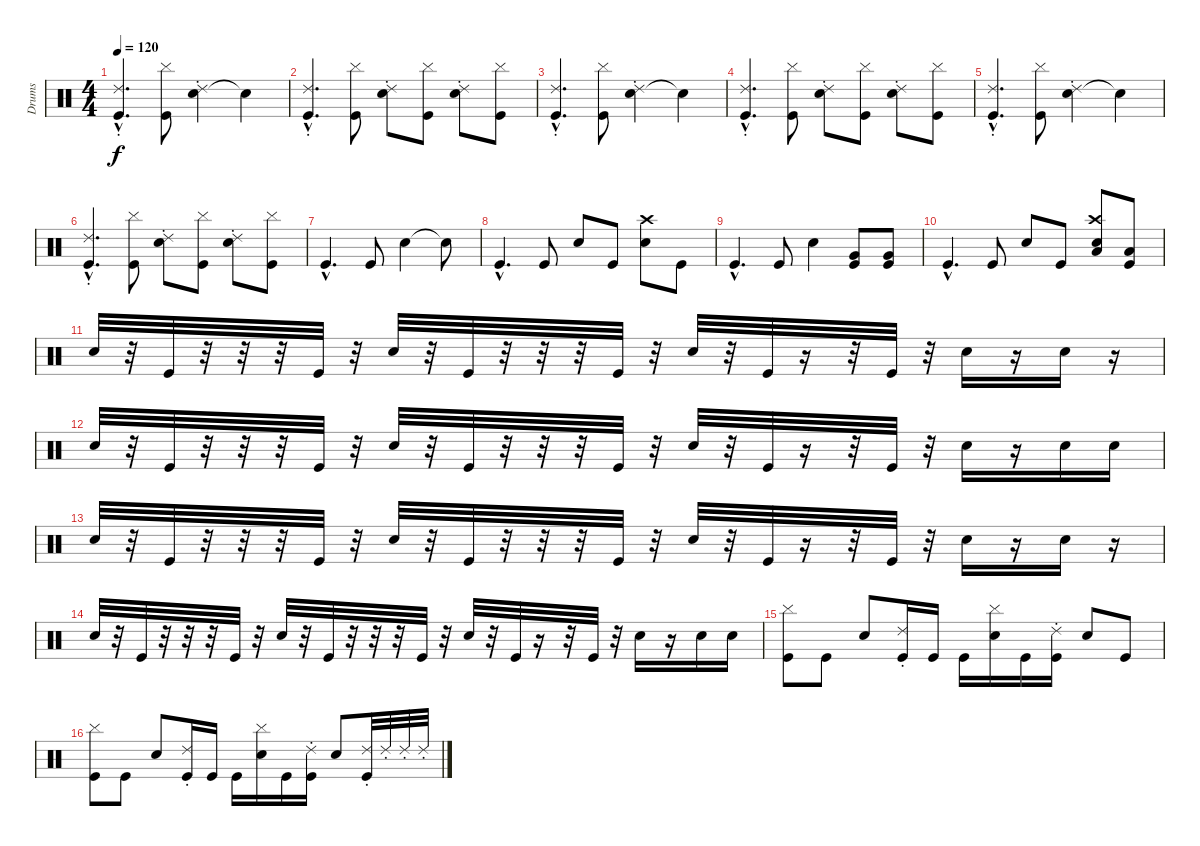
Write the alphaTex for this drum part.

\track ("Drums" "Drums") {instrument percussion}
\staff {score}
\articulation defaults
\ts (4 4)
\tempo 120
\clef neutral
\ks c
("Kick (hit)"{hac} "Ride (choke) 2"{hac}).4{d dy f} ("Kick (hit)" "Cymbal (hit)").8 ("Electric Snare (hit)" "Ride (choke) 2").4 "Snare (hit)"{t}.4 |
("Kick (hit)"{hac} "Ride (choke) 2"{hac}).4{d} ("Kick (hit)" "Cymbal (hit)").8 ("Electric Snare (hit)" "Ride (choke) 2").8 ("Kick (hit)" "Cymbal (hit)").8 ("Electric Snare (hit)" "Ride (choke) 2").8 ("Kick (hit)" "Cymbal (hit)").8 |
("Kick (hit)"{hac} "Ride (choke) 2"{hac}).4{d} ("Kick (hit)" "Cymbal (hit)").8 ("Electric Snare (hit)" "Ride (choke) 2").4 "Snare (hit)"{t}.4 |
("Kick (hit)"{hac} "Ride (choke) 2"{hac}).4{d} ("Kick (hit)" "Cymbal (hit)").8 ("Electric Snare (hit)" "Ride (choke) 2").8 ("Kick (hit)" "Cymbal (hit)").8 ("Electric Snare (hit)" "Ride (choke) 2").8 ("Kick (hit)" "Cymbal (hit)").8 |
("Kick (hit)"{hac} "Ride (choke) 2"{hac}).4{d} ("Kick (hit)" "Cymbal (hit)").8 ("Electric Snare (hit)" "Ride (choke) 2").4 "Snare (hit)"{t}.4 |
("Kick (hit)"{hac} "Ride (choke) 2"{hac}).4{d} ("Kick (hit)" "Cymbal (hit)").8 ("Electric Snare (hit)" "Ride (choke) 2").8 ("Kick (hit)" "Cymbal (hit)").8 ("Electric Snare (hit)" "Ride (choke) 2").8 ("Kick (hit)" "Cymbal (hit)").8 |
"Kick (hit)"{hac}.4{d} "Kick (hit)".8 "Electric Snare (hit)".4 "Snare (hit)"{t}.8 |
"Kick (hit)"{hac}.4{d} "Kick (hit)".8 "Electric Snare (hit)".8 "Kick (hit)".8 ("Electric Snare (hit)" "Crash high (hit)").8 "Kick (hit)".8 |
"Kick (hit)"{hac}.4{d} "Kick (hit)".8 "Electric Snare (hit)".4 ("Kick (hit)" "Very Low Tom (hit)").8 ("Kick (hit)" "Very Low Tom (hit)").8 |
"Kick (hit)"{hac}.4{d} "Kick (hit)".8 "Electric Snare (hit)".8 "Kick (hit)".8 ("Electric Snare (hit)" "Crash high (hit)" "Low Floor Tom (hit)").8 ("Kick (hit)" "Low Floor Tom (hit)").8 |
"Electric Snare (hit)".32 r.32 "Kick (hit)".32 r.32 r.32 r.32 "Kick (hit)".32 r.32 "Electric Snare (hit)".32 r.32 "Kick (hit)".32 r.32 r.32 r.32 "Kick (hit)".32 r.32 "Electric Snare (hit)".32 r.32 "Kick (hit)".32 r.16 r.32 "Kick (hit)".32 r.32 "Electric Snare (hit)".16 r.16 "Electric Snare (hit)".16 r.16 |
"Electric Snare (hit)".32 r.32 "Kick (hit)".32 r.32 r.32 r.32 "Kick (hit)".32 r.32 "Electric Snare (hit)".32 r.32 "Kick (hit)".32 r.32 r.32 r.32 "Kick (hit)".32 r.32 "Electric Snare (hit)".32 r.32 "Kick (hit)".32 r.16 r.32 "Kick (hit)".32 r.32 "Electric Snare (hit)".16 r.16 "Electric Snare (hit)".16 "Electric Snare (hit)".16 |
"Electric Snare (hit)".32 r.32 "Kick (hit)".32 r.32 r.32 r.32 "Kick (hit)".32 r.32 "Electric Snare (hit)".32 r.32 "Kick (hit)".32 r.32 r.32 r.32 "Kick (hit)".32 r.32 "Electric Snare (hit)".32 r.32 "Kick (hit)".32 r.16 r.32 "Kick (hit)".32 r.32 "Electric Snare (hit)".16 r.16 "Electric Snare (hit)".16 r.16 |
"Electric Snare (hit)".32 r.32 "Kick (hit)".32 r.32 r.32 r.32 "Kick (hit)".32 r.32 "Electric Snare (hit)".32 r.32 "Kick (hit)".32 r.32 r.32 r.32 "Kick (hit)".32 r.32 "Electric Snare (hit)".32 r.32 "Kick (hit)".32 r.16 r.32 "Kick (hit)".32 r.32 "Electric Snare (hit)".16 r.16 "Electric Snare (hit)".16 "Electric Snare (hit)".16 |
("Kick (hit)" "Cymbal (hit)").8 "Kick (hit)".8 "Electric Snare (hit)".8 ("Kick (hit)" "Ride (choke) 2").16 "Kick (hit)".16 "Kick (hit)".16 ("Electric Snare (hit)" "Cymbal (hit)").16 "Kick (hit)".16 ("Kick (hit)" "Ride (choke) 2").16 "Electric Snare (hit)".8 "Kick (hit)".8 |
("Kick (hit)" "Cymbal (hit)").8 "Kick (hit)".8 "Electric Snare (hit)".8 ("Kick (hit)" "Ride (choke) 2").16 "Kick (hit)".16 "Kick (hit)".16 ("Electric Snare (hit)" "Cymbal (hit)").16 "Kick (hit)".16 ("Kick (hit)" "Ride (choke) 2").16 "Electric Snare (hit)".8 ("Kick (hit)" "Ride (choke) 2").32 "Ride (choke) 2".32 "Ride (choke) 2".32 "Ride (choke) 2".32
